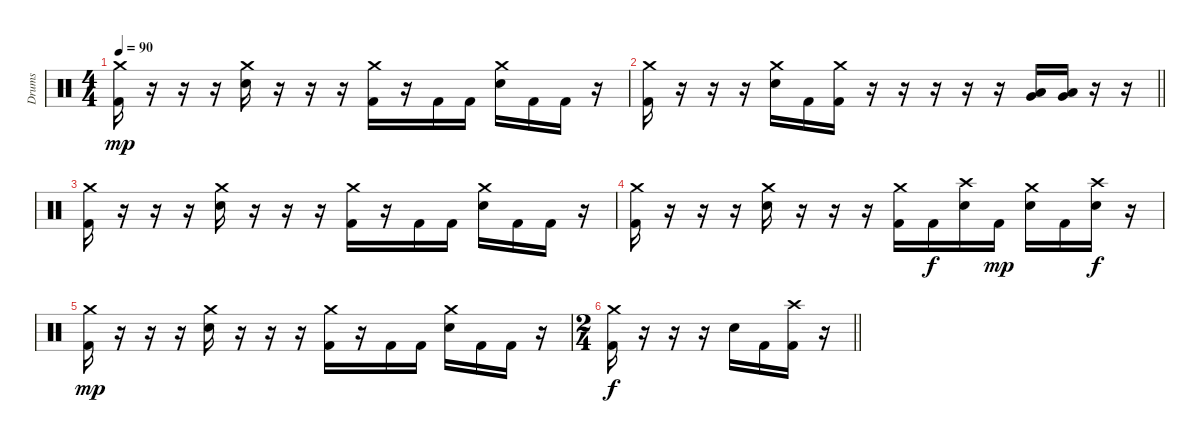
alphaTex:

\track ("Drums" "Drums") {instrument percussion}
\staff {score}
\articulation defaults
\ts (4 4)
\tempo 90
\clef neutral
\ks c
("Crash medium (hit)" "Kick (hit) 2").16{dy mp} r.16 r.16 r.16 ("Crash medium (hit)" "Electric Snare (hit)").16 r.16 r.16 r.16 ("Crash medium (hit)" "Kick (hit) 2").16 r.16 "Kick (hit) 2".16 "Kick (hit) 2".16 ("Crash medium (hit)" "Electric Snare (hit)").16 "Kick (hit) 2".16 "Kick (hit) 2".16 r.16 |
\barLineRight lightlight
("Crash medium (hit)" "Kick (hit) 2").16 r.16 r.16 r.16 ("Crash medium (hit)" "Electric Snare (hit)").16 "Kick (hit) 2".16 ("Crash medium (hit)" "Kick (hit) 2").16 r.16 r.16 r.16 r.16 r.16 ("Low Tom (hit)" "Very Low Tom (hit)").16 ("Low Tom (hit)" "Very Low Tom (hit)").16 r.16 r.16 |
("Crash medium (hit)" "Kick (hit) 2").16 r.16 r.16 r.16 ("Crash medium (hit)" "Electric Snare (hit)").16 r.16 r.16 r.16 ("Crash medium (hit)" "Kick (hit) 2").16 r.16 "Kick (hit) 2".16 "Kick (hit) 2".16 ("Crash medium (hit)" "Electric Snare (hit)").16 "Kick (hit) 2".16 "Kick (hit) 2".16 r.16 |
("Crash medium (hit)" "Kick (hit) 2").16 r.16 r.16 r.16 ("Crash medium (hit)" "Electric Snare (hit)").16 r.16 r.16 r.16 ("Crash medium (hit)" "Kick (hit) 2").16 "Kick (hit) 2".16{dy f} ("Crash high (hit)" "Electric Snare (hit)").16 "Kick (hit) 2".16{dy mp} ("Crash medium (hit)" "Electric Snare (hit)").16 "Kick (hit) 2".16 ("Crash high (hit)" "Electric Snare (hit)").16{dy f} r.16 |
("Crash medium (hit)" "Kick (hit) 2").16{dy mp} r.16 r.16 r.16 ("Crash medium (hit)" "Electric Snare (hit)").16 r.16 r.16 r.16 ("Crash medium (hit)" "Kick (hit) 2").16 r.16 "Kick (hit) 2".16 "Kick (hit) 2".16 ("Crash medium (hit)" "Electric Snare (hit)").16 "Kick (hit) 2".16 "Kick (hit) 2".16 r.16 |
\ts (2 4)
\barLineRight lightlight
("Crash medium (hit)" "Kick (hit) 2").16{dy f} r.16 r.16 r.16 "Electric Snare (hit)".16 "Kick (hit) 2".16 ("Crash high (hit)" "Kick (hit) 2").16 r.16{volume 0}
